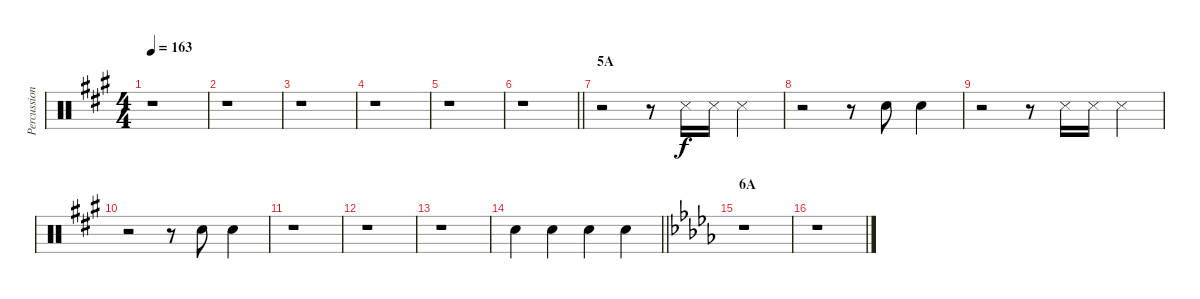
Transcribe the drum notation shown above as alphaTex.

\track ("Percussions" "Percussion") {instrument percussion}
\staff {score}
\articulation defaults
\ts (4 4)
\tempo 163
\clef neutral
\ks a
r.1{dy f} |
r.1 |
r.1 |
r.1 |
r.1 |
\barLineRight lightlight
r.1 |
\section ("" "5A")
r.2 r.8 "Metronome (hit)".16 "Metronome (hit)".16 "Metronome (hit)".4 |
r.2 r.8 "Hand Clap (hit)".8 "Hand Clap (hit)".4 |
r.2 r.8 "Metronome (hit)".16 "Metronome (hit)".16 "Metronome (hit)".4 |
r.2 r.8 "Hand Clap (hit)".8 "Hand Clap (hit)".4 |
r.1 |
r.1 |
r.1 |
\barLineRight lightlight "Hand Clap (hit)".4 "Hand Clap (hit)".4 "Hand Clap (hit)".4 "Hand Clap (hit)".4
|
\section ("" "6A")
\ks db
r.1 |
r.1
